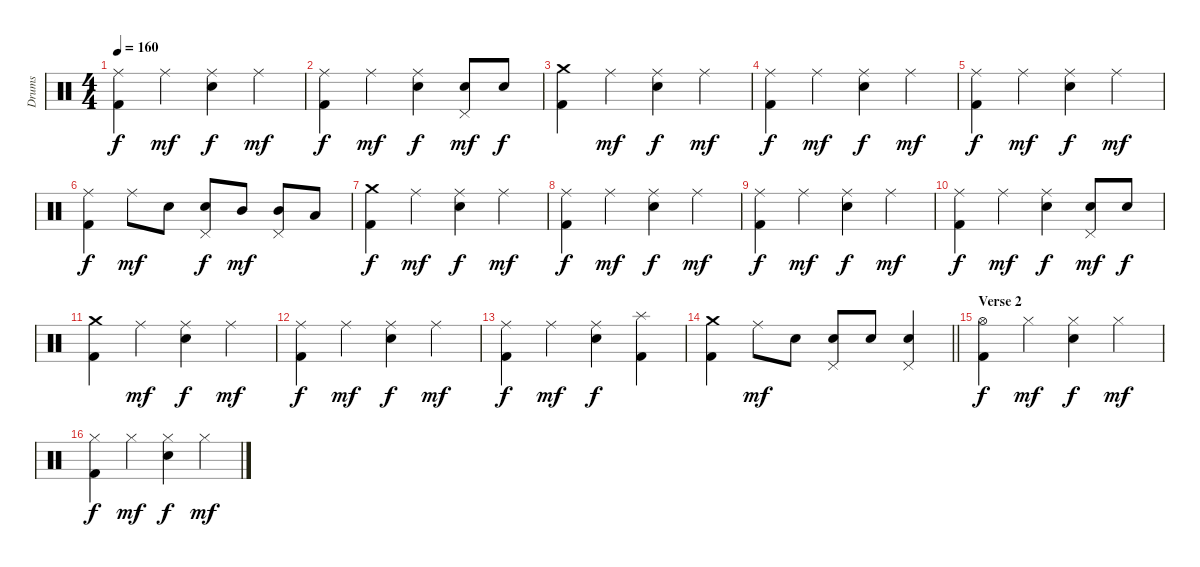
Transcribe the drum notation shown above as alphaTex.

\track ("Drums" "Drums") {instrument percussion}
\staff {score}
\articulation defaults
\ts (4 4)
\tempo 160
\clef neutral
\ks c
("Ride (middle)" "Kick (hit) 2").4{dy f} "Ride (middle)".4{dy mf} ("Ride (middle)" "Snare (hit) 2").4{dy f} "Ride (middle)".4{dy mf} |
("Ride (middle)" "Kick (hit) 2").4{dy f} "Ride (middle)".4{dy mf} ("Ride (middle)" "Snare (hit) 2").4{dy f} ("Pedal Hi-Hat (hit)" "Snare (hit) 2").8{dy mf} "Snare (hit) 2".8{dy f} |
("Crash medium (hit)" "Kick (hit) 2").4 "Ride (middle)".4{dy mf} ("Ride (middle)" "Snare (hit) 2").4{dy f} "Ride (middle)".4{dy mf} |
("Ride (middle)" "Kick (hit) 2").4{dy f} "Ride (middle)".4{dy mf} ("Ride (middle)" "Snare (hit) 2").4{dy f} "Ride (middle)".4{dy mf} |
("Ride (middle)" "Kick (hit) 2").4{dy f} "Ride (middle)".4{dy mf} ("Ride (middle)" "Snare (hit) 2").4{dy f} "Ride (middle)".4{dy mf} |
("Ride (middle)" "Kick (hit) 2").4{dy f} "Ride (middle)".8{dy mf} "Snare (hit) 2".8 ("Pedal Hi-Hat (hit)" "Snare (hit) 2").8{dy f} "Mid Tom (hit)".8{dy mf} ("Pedal Hi-Hat (hit)" "Mid Tom (hit)").8 "Low Tom (hit)".8 |
("Crash medium (hit)" "Kick (hit) 2").4{dy f} "Ride (middle)".4{dy mf} ("Ride (middle)" "Snare (hit) 2").4{dy f} "Ride (middle)".4{dy mf} |
("Ride (middle)" "Kick (hit) 2").4{dy f} "Ride (middle)".4{dy mf} ("Ride (middle)" "Snare (hit) 2").4{dy f} "Ride (middle)".4{dy mf} |
("Ride (middle)" "Kick (hit) 2").4{dy f} "Ride (middle)".4{dy mf} ("Ride (middle)" "Snare (hit) 2").4{dy f} "Ride (middle)".4{dy mf} |
("Ride (middle)" "Kick (hit) 2").4{dy f} "Ride (middle)".4{dy mf} ("Ride (middle)" "Snare (hit) 2").4{dy f} ("Pedal Hi-Hat (hit)" "Snare (hit) 2").8{dy mf} "Snare (hit) 2".8{dy f} |
("Crash medium (hit)" "Kick (hit) 2").4 "Ride (middle)".4{dy mf} ("Ride (middle)" "Snare (hit) 2").4{dy f} "Ride (middle)".4{dy mf} |
("Ride (middle)" "Kick (hit) 2").4{dy f} "Ride (middle)".4{dy mf} ("Ride (middle)" "Snare (hit) 2").4{dy f} "Ride (middle)".4{dy mf} |
("Ride (middle)" "Kick (hit) 2").4{dy f} "Ride (middle)".4{dy mf} ("Ride (middle)" "Snare (hit) 2").4{dy f} ("Splash (hit)" "Kick (hit) 2").4 |
\barLineRight lightlight
("Crash medium (hit)" "Kick (hit) 2").4 "Ride (middle)".8{dy mf} "Snare (hit) 2".8 ("Pedal Hi-Hat (hit)" "Snare (hit) 2").8 "Snare (hit) 2".8 ("Pedal Hi-Hat (hit)" "Snare (hit) 2").4 |
\section ("" "Verse 2")
("Hi-Hat (open)" "Kick (hit) 2").4{dy f} "Hi-Hat (closed)".4{dy mf} ("Hi-Hat (closed)" "Snare (hit) 2").4{dy f} "Hi-Hat (closed)".4{dy mf} |
("Hi-Hat (closed)" "Kick (hit) 2").4{dy f} "Hi-Hat (closed)".4{dy mf} ("Hi-Hat (closed)" "Snare (hit) 2").4{dy f} "Hi-Hat (closed)".4{dy mf}
